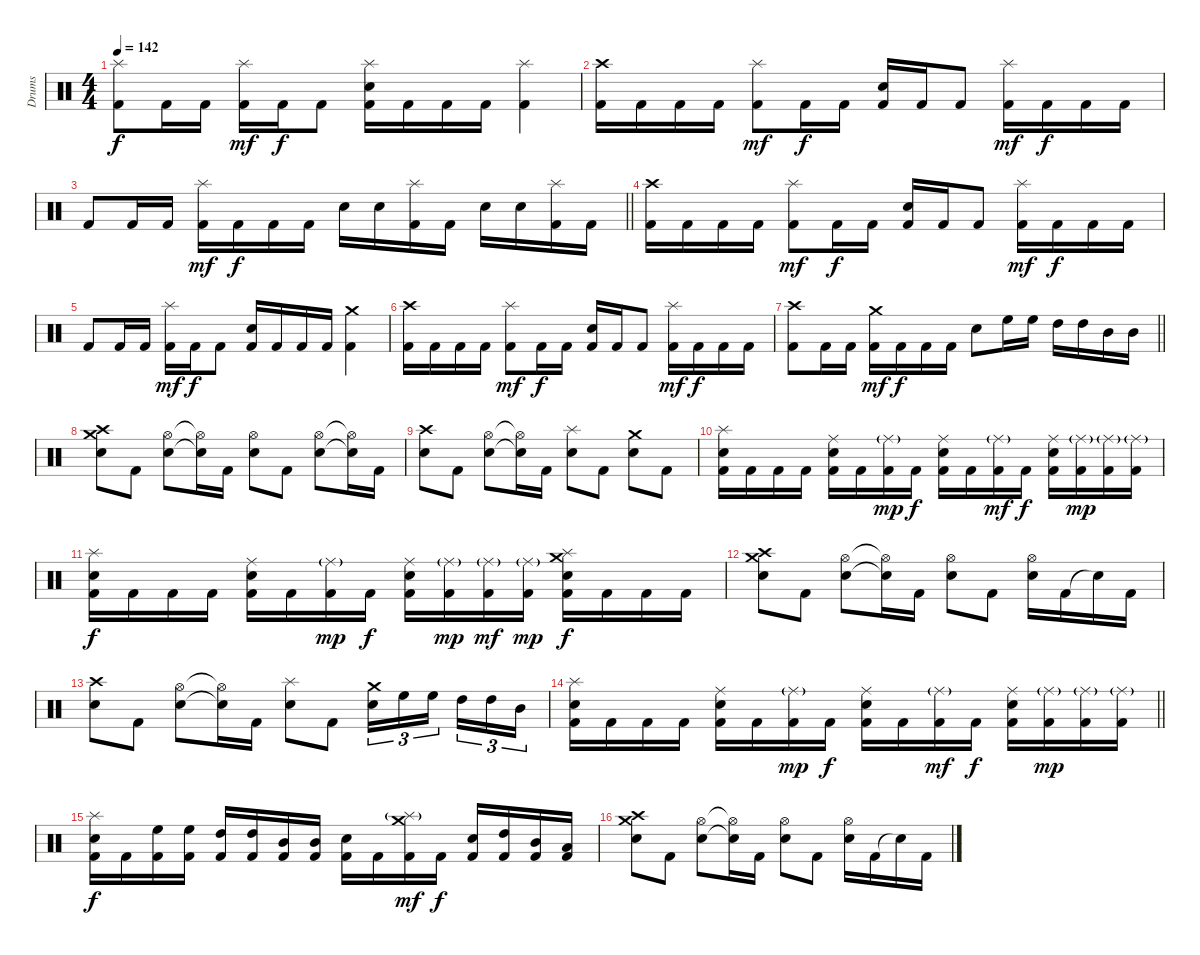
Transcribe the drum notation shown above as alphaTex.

\track ("Drums" "Drums") {instrument percussion}
\staff {score}
\articulation defaults
\ts (4 4)
\tempo 142
\clef neutral
\ks c
("Splash (hit)" "Kick (hit) 2").8{dy f} "Kick (hit) 2".16 "Kick (hit) 2".16 ("Splash (hit)" "Kick (hit) 2").16{dy mf} "Kick (hit) 2".16{dy f} "Kick (hit) 2".8 ("Splash (hit)" "Electric Snare (hit)" "Kick (hit) 2").16 "Kick (hit) 2".16 "Kick (hit) 2".16 "Kick (hit) 2".16 ("Splash (hit)" "Kick (hit) 2").4 |
("Crash high (hit)" "Kick (hit) 2").16 "Kick (hit) 2".16 "Kick (hit) 2".16 "Kick (hit) 2".16 ("Splash (hit)" "Kick (hit) 2").8{dy mf} "Kick (hit) 2".16{dy f} "Kick (hit) 2".16 ("Electric Snare (hit)" "Kick (hit) 2").16 "Kick (hit) 2".16 "Kick (hit) 2".8 ("Splash (hit)" "Kick (hit) 2").16{dy mf} "Kick (hit) 2".16{dy f} "Kick (hit) 2".16 "Kick (hit) 2".16 |
\barLineRight lightlight "Kick (hit) 2".8 "Kick (hit) 2".16 "Kick (hit) 2".16
("Splash (hit)" "Kick (hit) 2").16{dy mf} "Kick (hit) 2".16{dy f} "Kick (hit) 2".16 "Kick (hit) 2".16 "Electric Snare (hit)".16 "Electric Snare (hit)".16 ("Splash (hit)" "Kick (hit) 2").16 "Kick (hit) 2".16 "Electric Snare (hit)".16 "Electric Snare (hit)".16 ("Splash (hit)" "Kick (hit) 2").16 "Kick (hit) 2".16 |
("Crash high (hit)" "Kick (hit) 2").16 "Kick (hit) 2".16 "Kick (hit) 2".16 "Kick (hit) 2".16 ("Splash (hit)" "Kick (hit) 2").8{dy mf} "Kick (hit) 2".16{dy f} "Kick (hit) 2".16 ("Electric Snare (hit)" "Kick (hit) 2").16 "Kick (hit) 2".16 "Kick (hit) 2".8 ("Splash (hit)" "Kick (hit) 2").16{dy mf} "Kick (hit) 2".16{dy f} "Kick (hit) 2".16 "Kick (hit) 2".16 |
"Kick (hit) 2".8 "Kick (hit) 2".16 "Kick (hit) 2".16 ("Splash (hit)" "Kick (hit) 2").16{dy mf} "Kick (hit) 2".16{dy f} "Kick (hit) 2".8 ("Electric Snare (hit)" "Kick (hit) 2").16 "Kick (hit) 2".16 "Kick (hit) 2".16 "Kick (hit) 2".16 ("Crash medium (hit)" "Kick (hit) 2").4 |
("Crash high (hit)" "Kick (hit) 2").16 "Kick (hit) 2".16 "Kick (hit) 2".16 "Kick (hit) 2".16 ("Splash (hit)" "Kick (hit) 2").8{dy mf} "Kick (hit) 2".16{dy f} "Kick (hit) 2".16 ("Electric Snare (hit)" "Kick (hit) 2").16 "Kick (hit) 2".16 "Kick (hit) 2".8 ("Splash (hit)" "Kick (hit) 2").16{dy mf} "Kick (hit) 2".16{dy f} "Kick (hit) 2".16 "Kick (hit) 2".16 |
\barLineRight lightlight
("Crash high (hit)" "Kick (hit) 2").8 "Kick (hit) 2".16 "Kick (hit) 2".16 ("Crash medium (hit)" "Kick (hit) 2").16{dy mf} "Kick (hit) 2".16{dy f} "Kick (hit) 2".16 "Kick (hit) 2".16 "Electric Snare (hit)".8 "High Floor Tom (hit)".16 "High Floor Tom (hit)".16 "High Tom (hit)".16 "High Tom (hit)".16 "Mid Tom (hit)".16 "Mid Tom (hit)".16 |
("Crash high (hit)" "Crash medium (hit)" "Electric Snare (hit)").8 "Kick (hit) 2".8 ("Hi-Hat (open)" "Electric Snare (hit)").8 ("Hi-Hat (open)"{t} "Snare (hit)"{t}).16 "Kick (hit) 2".16 ("Hi-Hat (open)" "Electric Snare (hit)").8 "Kick (hit) 2".8 ("Hi-Hat (open)" "Electric Snare (hit)").8 ("Hi-Hat (open)"{t} "Snare (hit)"{t}).16 "Kick (hit) 2".16 |
("Crash high (hit)" "Electric Snare (hit)").8 "Kick (hit) 2".8 ("Hi-Hat (open)" "Electric Snare (hit)").8 ("Hi-Hat (open)"{t} "Snare (hit)"{t}).16 "Kick (hit) 2".16 ("Splash (hit)" "Electric Snare (hit)").8 "Kick (hit) 2".8 ("Crash medium (hit)" "Electric Snare (hit)").8 "Kick (hit) 2".8 |
("Splash (hit)" "Electric Snare (hit)" "Kick (hit) 2").16 "Kick (hit) 2".16 "Kick (hit) 2".16 "Kick (hit) 2".16 ("Ride (middle)" "Electric Snare (hit)" "Kick (hit) 2").16 "Kick (hit) 2".16 ("Ride (middle)"{g} "Kick (hit) 2").16{dy mp} "Kick (hit) 2".16{dy f} ("Ride (middle)" "Electric Snare (hit)" "Kick (hit) 2").16 "Kick (hit) 2".16 ("Ride (middle)"{g} "Kick (hit) 2").16{dy mf} "Kick (hit) 2".16{dy f} ("Ride (middle)" "Electric Snare (hit)" "Kick (hit) 2").16 ("Ride (middle)"{g} "Kick (hit) 2").16{dy mp} ("Ride (middle)"{g} "Kick (hit) 2").16 ("Ride (middle)"{g} "Kick (hit) 2").16 |
("Splash (hit)" "Electric Snare (hit)" "Kick (hit) 2").16{dy f} "Kick (hit) 2".16 "Kick (hit) 2".16 "Kick (hit) 2".16 ("Ride (middle)" "Electric Snare (hit)" "Kick (hit) 2").16 "Kick (hit) 2".16 ("Ride (middle)"{g} "Kick (hit) 2").16{dy mp} "Kick (hit) 2".16{dy f} ("Ride (middle)" "Electric Snare (hit)" "Kick (hit) 2").16 ("Ride (middle)"{g} "Kick (hit) 2").16{dy mp} ("Ride (middle)"{g} "Kick (hit) 2").16{dy mf} ("Ride (middle)"{g} "Kick (hit) 2").16{dy mp} ("Crash medium (hit)" "Splash (hit)" "Electric Snare (hit)" "Kick (hit) 2").16{dy f} "Kick (hit) 2".16 "Kick (hit) 2".16 "Kick (hit) 2".16 |
("Crash high (hit)" "Crash medium (hit)" "Electric Snare (hit)").8 "Kick (hit) 2".8 ("Hi-Hat (open)" "Electric Snare (hit)").8 ("Hi-Hat (open)"{t} "Snare (hit)"{t}).16 "Kick (hit) 2".16 ("Hi-Hat (open)" "Electric Snare (hit)").8 "Kick (hit) 2".8 ("Hi-Hat (open)" "Electric Snare (hit)").16 "Kick (hit) 2".16 "Snare (hit)"{t}.16 "Kick (hit) 2".16 |
("Crash high (hit)" "Electric Snare (hit)").8 "Kick (hit) 2".8 ("Hi-Hat (open)" "Electric Snare (hit)").8 ("Hi-Hat (open)"{t} "Snare (hit)"{t}).16 "Kick (hit) 2".16 ("Splash (hit)" "Electric Snare (hit)").8 "Kick (hit) 2".8 ("Crash medium (hit)" "Electric Snare (hit)").16{tu (3 2)} "High Floor Tom (hit)".16{tu (3 2)} "High Floor Tom (hit)".16{tu (3 2)} "High Tom (hit)".16{tu (3 2)} "High Tom (hit)".16{tu (3 2)} "Mid Tom (hit)".16{tu (3 2)} |
\barLineRight lightlight
("Splash (hit)" "Electric Snare (hit)" "Kick (hit) 2").16 "Kick (hit) 2".16 "Kick (hit) 2".16 "Kick (hit) 2".16 ("Ride (middle)" "Electric Snare (hit)" "Kick (hit) 2").16 "Kick (hit) 2".16 ("Ride (middle)"{g} "Kick (hit) 2").16{dy mp} "Kick (hit) 2".16{dy f} ("Ride (middle)" "Electric Snare (hit)" "Kick (hit) 2").16 "Kick (hit) 2".16 ("Ride (middle)"{g} "Kick (hit) 2").16{dy mf} "Kick (hit) 2".16{dy f} ("Ride (middle)" "Electric Snare (hit)" "Kick (hit) 2").16 ("Ride (middle)"{g} "Kick (hit) 2").16{dy mp} ("Ride (middle)"{g} "Kick (hit) 2").16 ("Ride (middle)"{g} "Kick (hit) 2").16 |
\section ("" "")
("Splash (hit)" "Electric Snare (hit)" "Kick (hit) 2").16{dy f} "Kick (hit) 2".16 ("High Floor Tom (hit)" "Kick (hit) 2").16 ("High Floor Tom (hit)" "Kick (hit) 2").16 ("High Tom (hit)" "Kick (hit) 2").16 ("High Tom (hit)" "Kick (hit) 2").16 ("Mid Tom (hit)" "Kick (hit) 2").16 ("Mid Tom (hit)" "Kick (hit) 2").16 ("Electric Snare (hit)" "Kick (hit) 2").16 "Kick (hit) 2".16 ("Crash medium (hit)" "Splash (hit)"{g} "Kick (hit) 2").16{dy mf} "Kick (hit) 2".16{dy f} ("Electric Snare (hit)" "Kick (hit) 2").16 ("High Tom (hit)" "Kick (hit) 2").16 ("Mid Tom (hit)" "Kick (hit) 2").16 ("Low Tom (hit)" "Kick (hit) 2").16 |
("Crash high (hit)" "Crash medium (hit)" "Electric Snare (hit)").8 "Kick (hit) 2".8 ("Hi-Hat (open)" "Electric Snare (hit)").8 ("Hi-Hat (open)"{t} "Snare (hit)"{t}).16 "Kick (hit) 2".16 ("Hi-Hat (open)" "Electric Snare (hit)").8 "Kick (hit) 2".8 ("Hi-Hat (open)" "Electric Snare (hit)").16 "Kick (hit) 2".16 "Snare (hit)"{t}.16 "Kick (hit) 2".16
